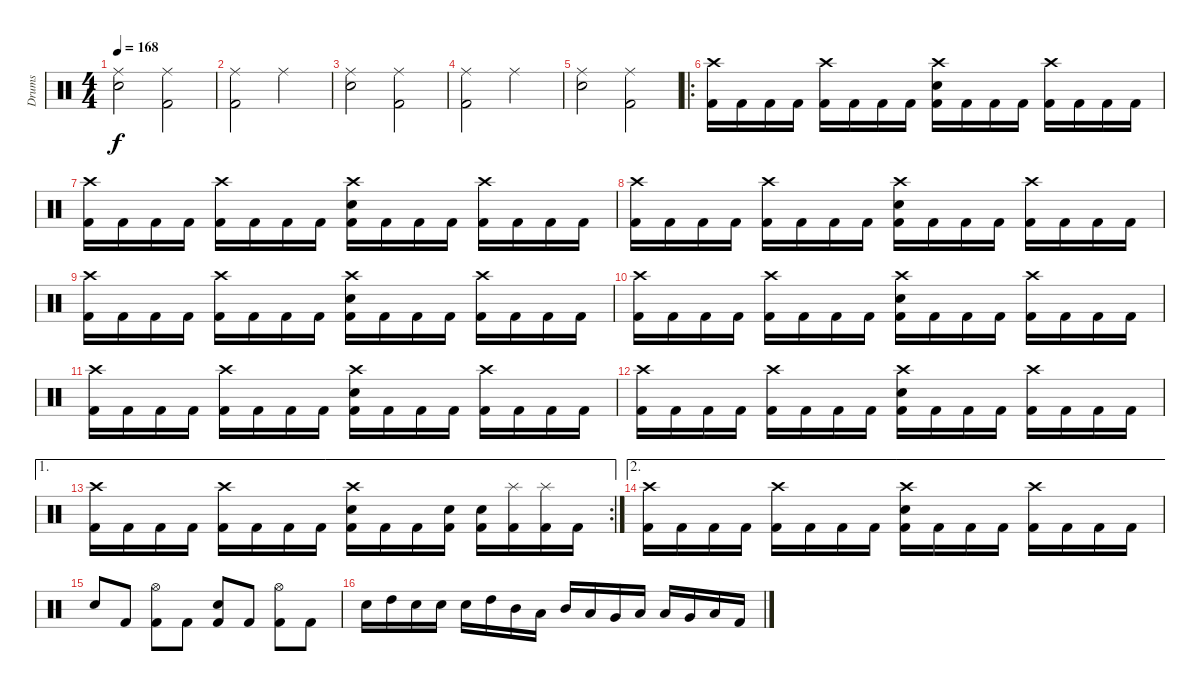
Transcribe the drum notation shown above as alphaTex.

\track ("Drums" "Drums") {instrument percussion}
\staff {score}
\articulation defaults
\ts (4 4)
\tempo 168
\clef neutral
\ks c
("Ride (middle)" "Snare (hit) 2").2{dy f} ("Ride (middle)" "Kick (hit) 2").2 |
("Ride (middle)" "Kick (hit) 2").2{volume 13} "Ride (middle)".2 |
("Ride (middle)" "Snare (hit) 2").2 ("Ride (middle)" "Kick (hit) 2").2 |
("Ride (middle)" "Kick (hit) 2").2{volume 13} "Ride (middle)".2 |
("Ride (middle)" "Snare (hit) 2").2 ("Ride (middle)" "Kick (hit) 2").2 |
\ro
("Crash high (hit)" "Kick (hit) 2").16 "Kick (hit) 2".16 "Kick (hit) 2".16 "Kick (hit) 2".16 ("Crash high (hit)" "Kick (hit) 2").16 "Kick (hit) 2".16 "Kick (hit) 2".16 "Kick (hit) 2".16 ("Crash high (hit)" "Snare (hit) 2" "Kick (hit) 2").16 "Kick (hit) 2".16 "Kick (hit) 2".16 "Kick (hit) 2".16 ("Crash high (hit)" "Kick (hit) 2").16 "Kick (hit) 2".16 "Kick (hit) 2".16 "Kick (hit) 2".16 |
("Crash high (hit)" "Kick (hit) 2").16 "Kick (hit) 2".16 "Kick (hit) 2".16 "Kick (hit) 2".16 ("Crash high (hit)" "Kick (hit) 2").16 "Kick (hit) 2".16 "Kick (hit) 2".16 "Kick (hit) 2".16 ("Crash high (hit)" "Snare (hit) 2" "Kick (hit) 2").16 "Kick (hit) 2".16 "Kick (hit) 2".16 "Kick (hit) 2".16 ("Crash high (hit)" "Kick (hit) 2").16 "Kick (hit) 2".16 "Kick (hit) 2".16 "Kick (hit) 2".16 |
("Crash high (hit)" "Kick (hit) 2").16 "Kick (hit) 2".16 "Kick (hit) 2".16 "Kick (hit) 2".16 ("Crash high (hit)" "Kick (hit) 2").16 "Kick (hit) 2".16 "Kick (hit) 2".16 "Kick (hit) 2".16 ("Crash high (hit)" "Snare (hit) 2" "Kick (hit) 2").16 "Kick (hit) 2".16 "Kick (hit) 2".16 "Kick (hit) 2".16 ("Crash high (hit)" "Kick (hit) 2").16 "Kick (hit) 2".16 "Kick (hit) 2".16 "Kick (hit) 2".16 |
("Crash high (hit)" "Kick (hit) 2").16 "Kick (hit) 2".16 "Kick (hit) 2".16 "Kick (hit) 2".16 ("Crash high (hit)" "Kick (hit) 2").16 "Kick (hit) 2".16 "Kick (hit) 2".16 "Kick (hit) 2".16 ("Crash high (hit)" "Snare (hit) 2" "Kick (hit) 2").16 "Kick (hit) 2".16 "Kick (hit) 2".16 "Kick (hit) 2".16 ("Crash high (hit)" "Kick (hit) 2").16 "Kick (hit) 2".16 "Kick (hit) 2".16 "Kick (hit) 2".16 |
("Crash high (hit)" "Kick (hit) 2").16 "Kick (hit) 2".16 "Kick (hit) 2".16 "Kick (hit) 2".16 ("Crash high (hit)" "Kick (hit) 2").16 "Kick (hit) 2".16 "Kick (hit) 2".16 "Kick (hit) 2".16 ("Crash high (hit)" "Snare (hit) 2" "Kick (hit) 2").16 "Kick (hit) 2".16 "Kick (hit) 2".16 "Kick (hit) 2".16 ("Crash high (hit)" "Kick (hit) 2").16 "Kick (hit) 2".16 "Kick (hit) 2".16 "Kick (hit) 2".16 |
("Crash high (hit)" "Kick (hit) 2").16 "Kick (hit) 2".16 "Kick (hit) 2".16 "Kick (hit) 2".16 ("Crash high (hit)" "Kick (hit) 2").16 "Kick (hit) 2".16 "Kick (hit) 2".16 "Kick (hit) 2".16 ("Crash high (hit)" "Snare (hit) 2" "Kick (hit) 2").16 "Kick (hit) 2".16 "Kick (hit) 2".16 "Kick (hit) 2".16 ("Crash high (hit)" "Kick (hit) 2").16 "Kick (hit) 2".16 "Kick (hit) 2".16 "Kick (hit) 2".16 |
("Crash high (hit)" "Kick (hit) 2").16 "Kick (hit) 2".16 "Kick (hit) 2".16 "Kick (hit) 2".16 ("Crash high (hit)" "Kick (hit) 2").16 "Kick (hit) 2".16 "Kick (hit) 2".16 "Kick (hit) 2".16 ("Crash high (hit)" "Snare (hit) 2" "Kick (hit) 2").16 "Kick (hit) 2".16 "Kick (hit) 2".16 "Kick (hit) 2".16 ("Crash high (hit)" "Kick (hit) 2").16 "Kick (hit) 2".16 "Kick (hit) 2".16 "Kick (hit) 2".16 |
\ae 1
\rc 2
("Crash high (hit)" "Kick (hit) 2").16 "Kick (hit) 2".16 "Kick (hit) 2".16 "Kick (hit) 2".16 ("Crash high (hit)" "Kick (hit) 2").16 "Kick (hit) 2".16 "Kick (hit) 2".16 "Kick (hit) 2".16 ("Crash high (hit)" "Snare (hit) 2" "Kick (hit) 2").16 "Kick (hit) 2".16 "Kick (hit) 2".16 ("Snare (hit) 2" "Kick (hit) 2").16 ("Snare (hit) 2" "Kick (hit) 2").16 ("Splash (hit)" "Kick (hit) 2").16 ("Splash (hit)" "Kick (hit) 2").16 "Kick (hit) 2".16 |
\ae 2
("Crash high (hit)" "Kick (hit) 2").16 "Kick (hit) 2".16 "Kick (hit) 2".16 "Kick (hit) 2".16 ("Crash high (hit)" "Kick (hit) 2").16 "Kick (hit) 2".16 "Kick (hit) 2".16 "Kick (hit) 2".16 ("Crash high (hit)" "Snare (hit) 2" "Kick (hit) 2").16 "Kick (hit) 2".16 "Kick (hit) 2".16 "Kick (hit) 2".16 ("Crash high (hit)" "Kick (hit) 2").16 "Kick (hit) 2".16 "Kick (hit) 2".16 "Kick (hit) 2".16 |
"Snare (hit) 2".8 "Kick (hit) 2".8 ("Hi-Hat (open)" "Kick (hit) 2").8 "Kick (hit) 2".8 ("Snare (hit) 2" "Kick (hit) 2").8 "Kick (hit) 2".8 ("Hi-Hat (open)" "Kick (hit) 2").8 "Kick (hit) 2".8 |
"Snare (hit) 2".16 "High Tom (hit)".16 "Snare (hit) 2".16 "Snare (hit) 2".16 "Snare (hit) 2".16 "High Tom (hit)".16 "Mid Tom (hit)".16 "Low Tom (hit)".16 "Mid Tom (hit)".16 "Low Tom (hit)".16 "Very Low Tom (hit)".16 "Low Floor Tom (hit)".16 "Low Tom (hit)".16 "Very Low Tom (hit)".16 "Low Floor Tom (hit)".16 "Kick (hit) 2".16
